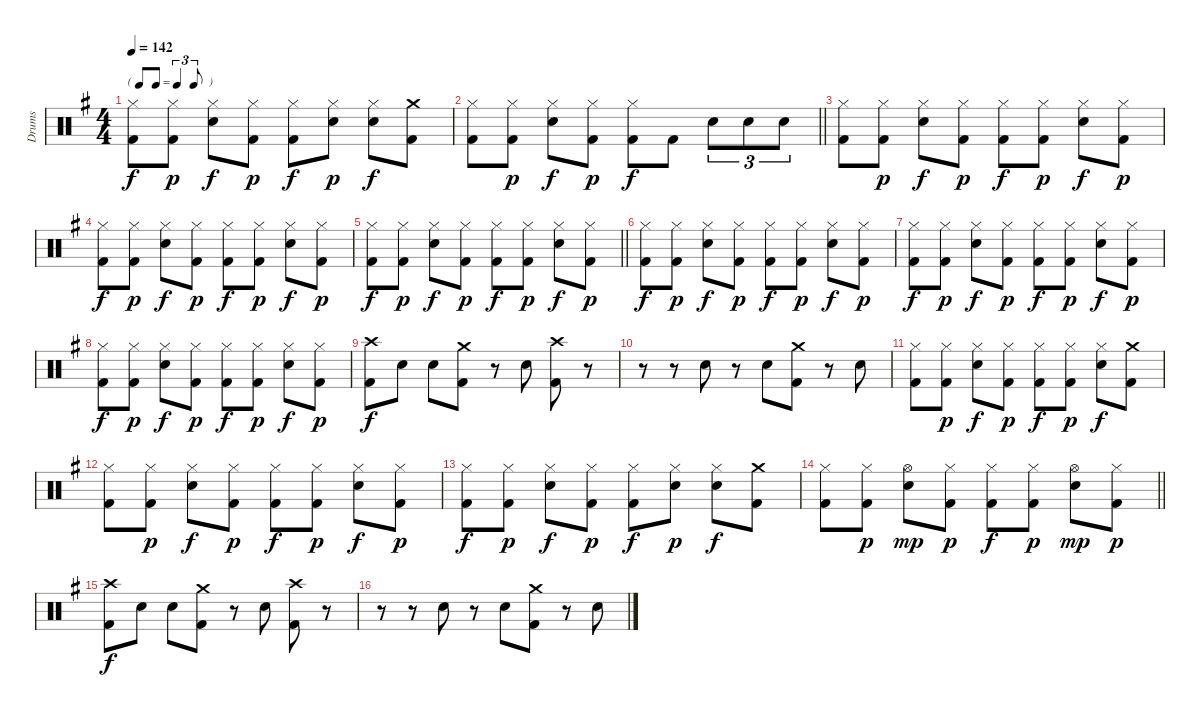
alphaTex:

\track ("Drums" "Drums") {instrument percussion}
\staff {score}
\articulation defaults
\ts (4 4)
\tf triplet8th
\tempo 142
\clef neutral
\ks g
("Hi-Hat (closed)" "Kick (hit) 2").8{dy f} ("Hi-Hat (closed)" "Kick (hit) 2").8{dy p} ("Hi-Hat (closed)" "Snare (hit) 2").8{dy f} ("Hi-Hat (closed)" "Kick (hit) 2").8{dy p} ("Hi-Hat (closed)" "Kick (hit) 2").8{dy f} ("Hi-Hat (closed)" "Snare (hit) 2").8{dy p} ("Hi-Hat (closed)" "Snare (hit) 2").8{dy f} ("Crash medium (hit)" "Kick (hit) 2").8 |
\barLineRight lightlight
("Hi-Hat (closed)" "Kick (hit) 2").8 ("Hi-Hat (closed)" "Kick (hit) 2").8{dy p} ("Hi-Hat (closed)" "Snare (hit) 2").8{dy f} ("Hi-Hat (closed)" "Kick (hit) 2").8{dy p} ("Hi-Hat (closed)" "Kick (hit) 2").8{dy f} "Kick (hit) 2".8 "Snare (hit) 2".8{tu (3 2)} "Snare (hit) 2".8{tu (3 2)} "Snare (hit) 2".8{tu (3 2)} |
("Hi-Hat (closed)" "Kick (hit) 2").8 ("Hi-Hat (closed)" "Kick (hit) 2").8{dy p} ("Hi-Hat (closed)" "Snare (hit) 2").8{dy f} ("Hi-Hat (closed)" "Kick (hit) 2").8{dy p} ("Hi-Hat (closed)" "Kick (hit) 2").8{dy f} ("Hi-Hat (closed)" "Kick (hit) 2").8{dy p} ("Hi-Hat (closed)" "Snare (hit) 2").8{dy f} ("Hi-Hat (closed)" "Kick (hit) 2").8{dy p} |
("Hi-Hat (closed)" "Kick (hit) 2").8{dy f} ("Hi-Hat (closed)" "Kick (hit) 2").8{dy p} ("Hi-Hat (closed)" "Snare (hit) 2").8{dy f} ("Hi-Hat (closed)" "Kick (hit) 2").8{dy p} ("Hi-Hat (closed)" "Kick (hit) 2").8{dy f} ("Hi-Hat (closed)" "Kick (hit) 2").8{dy p} ("Hi-Hat (closed)" "Snare (hit) 2").8{dy f} ("Hi-Hat (closed)" "Kick (hit) 2").8{dy p} |
\barLineRight lightlight
("Hi-Hat (closed)" "Kick (hit) 2").8{dy f} ("Hi-Hat (closed)" "Kick (hit) 2").8{dy p} ("Hi-Hat (closed)" "Snare (hit) 2").8{dy f} ("Hi-Hat (closed)" "Kick (hit) 2").8{dy p} ("Hi-Hat (closed)" "Kick (hit) 2").8{dy f} ("Hi-Hat (closed)" "Kick (hit) 2").8{dy p} ("Hi-Hat (closed)" "Snare (hit) 2").8{dy f} ("Hi-Hat (closed)" "Kick (hit) 2").8{dy p} |
("Hi-Hat (closed)" "Kick (hit) 2").8{dy f} ("Hi-Hat (closed)" "Kick (hit) 2").8{dy p} ("Hi-Hat (closed)" "Snare (hit) 2").8{dy f} ("Hi-Hat (closed)" "Kick (hit) 2").8{dy p} ("Hi-Hat (closed)" "Kick (hit) 2").8{dy f} ("Hi-Hat (closed)" "Kick (hit) 2").8{dy p} ("Hi-Hat (closed)" "Snare (hit) 2").8{dy f} ("Hi-Hat (closed)" "Kick (hit) 2").8{dy p} |
("Hi-Hat (closed)" "Kick (hit) 2").8{dy f} ("Hi-Hat (closed)" "Kick (hit) 2").8{dy p} ("Hi-Hat (closed)" "Snare (hit) 2").8{dy f} ("Hi-Hat (closed)" "Kick (hit) 2").8{dy p} ("Hi-Hat (closed)" "Kick (hit) 2").8{dy f} ("Hi-Hat (closed)" "Kick (hit) 2").8{dy p} ("Hi-Hat (closed)" "Snare (hit) 2").8{dy f} ("Hi-Hat (closed)" "Kick (hit) 2").8{dy p} |
("Hi-Hat (closed)" "Kick (hit) 2").8{dy f} ("Hi-Hat (closed)" "Kick (hit) 2").8{dy p} ("Hi-Hat (closed)" "Snare (hit) 2").8{dy f} ("Hi-Hat (closed)" "Kick (hit) 2").8{dy p} ("Hi-Hat (closed)" "Kick (hit) 2").8{dy f} ("Hi-Hat (closed)" "Kick (hit) 2").8{dy p} ("Hi-Hat (closed)" "Snare (hit) 2").8{dy f} ("Hi-Hat (closed)" "Kick (hit) 2").8{dy p} |
("Crash high (hit)" "Kick (hit) 2").8{dy f} "Snare (hit) 2".8 "Snare (hit) 2".8 ("Crash medium (hit)" "Kick (hit) 2").8 r.8 "Snare (hit) 2".8 ("Crash high (hit)" "Kick (hit) 2").8 r.8 |
r.8 r.8 "Snare (hit) 2".8 r.8 "Snare (hit) 2".8 ("Crash medium (hit)" "Kick (hit) 2").8 r.8 "Snare (hit) 2".8 |
("Hi-Hat (closed)" "Kick (hit) 2").8 ("Hi-Hat (closed)" "Kick (hit) 2").8{dy p} ("Hi-Hat (closed)" "Snare (hit) 2").8{dy f} ("Hi-Hat (closed)" "Kick (hit) 2").8{dy p} ("Hi-Hat (closed)" "Kick (hit) 2").8{dy f} ("Hi-Hat (closed)" "Kick (hit) 2").8{dy p} ("Hi-Hat (closed)" "Snare (hit) 2").8{dy f} ("Crash medium (hit)" "Kick (hit) 2").8 |
("Hi-Hat (closed)" "Kick (hit) 2").8 ("Hi-Hat (closed)" "Kick (hit) 2").8{dy p} ("Hi-Hat (closed)" "Snare (hit) 2").8{dy f} ("Hi-Hat (closed)" "Kick (hit) 2").8{dy p} ("Hi-Hat (closed)" "Kick (hit) 2").8{dy f} ("Hi-Hat (closed)" "Kick (hit) 2").8{dy p} ("Hi-Hat (closed)" "Snare (hit) 2").8{dy f} ("Hi-Hat (closed)" "Kick (hit) 2").8{dy p} |
("Hi-Hat (closed)" "Kick (hit) 2").8{dy f} ("Hi-Hat (closed)" "Kick (hit) 2").8{dy p} ("Hi-Hat (closed)" "Snare (hit) 2").8{dy f} ("Hi-Hat (closed)" "Kick (hit) 2").8{dy p} ("Hi-Hat (closed)" "Kick (hit) 2").8{dy f} ("Hi-Hat (closed)" "Snare (hit) 2").8{dy p} ("Hi-Hat (closed)" "Snare (hit) 2").8{dy f} ("Crash medium (hit)" "Kick (hit) 2").8 |
\barLineRight lightlight
("Hi-Hat (closed)" "Kick (hit) 2").8 ("Hi-Hat (closed)" "Kick (hit) 2").8{dy p} ("Hi-Hat (open)" "Snare (hit) 2").8{dy mp} ("Hi-Hat (closed)" "Kick (hit) 2").8{dy p} ("Hi-Hat (closed)" "Kick (hit) 2").8{dy f} ("Hi-Hat (closed)" "Kick (hit) 2").8{dy p} ("Hi-Hat (open)" "Snare (hit) 2").8{dy mp} ("Hi-Hat (closed)" "Kick (hit) 2").8{dy p} |
("Crash high (hit)" "Kick (hit) 2").8{dy f} "Snare (hit) 2".8 "Snare (hit) 2".8 ("Crash medium (hit)" "Kick (hit) 2").8 r.8 "Snare (hit) 2".8 ("Crash high (hit)" "Kick (hit) 2").8 r.8 |
r.8 r.8 "Snare (hit) 2".8 r.8 "Snare (hit) 2".8 ("Crash medium (hit)" "Kick (hit) 2").8 r.8 "Snare (hit) 2".8
